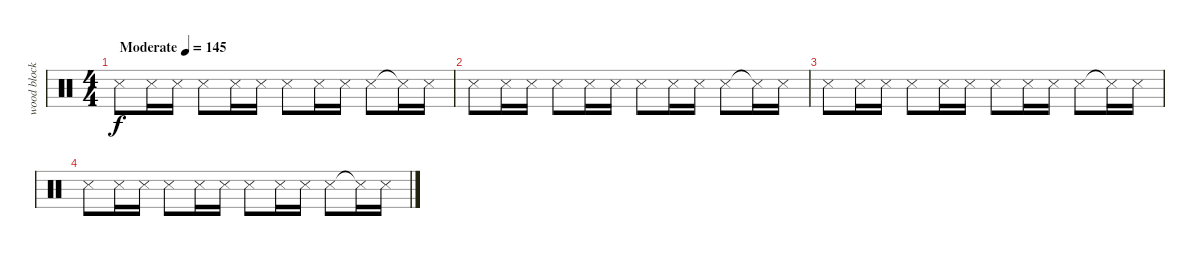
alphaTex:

\track ("wood block" "wood block") {instrument percussion}
\staff {score}
\articulation defaults
\ts (4 4)
\tempo (145 "Moderate")
\clef neutral
\ks c "Snare (side stick) 3".8{dy f} "Snare (side stick) 3".16 "Snare (side stick) 3".16 "Snare (side stick) 3".8 "Snare (side stick) 3".16 "Snare (side stick) 3".16 "Snare (side stick) 3".8 "Snare (side stick) 3".16 "Snare (side stick) 3".16 "Snare (side stick) 3".8 "Snare (side stick) 3"{t}.16 "Snare (side stick) 3".16
|
"Snare (side stick) 3".8 "Snare (side stick) 3".16 "Snare (side stick) 3".16 "Snare (side stick) 3".8 "Snare (side stick) 3".16 "Snare (side stick) 3".16 "Snare (side stick) 3".8 "Snare (side stick) 3".16 "Snare (side stick) 3".16 "Snare (side stick) 3".8 "Snare (side stick) 3"{t}.16 "Snare (side stick) 3".16 |
"Snare (side stick) 3".8 "Snare (side stick) 3".16 "Snare (side stick) 3".16 "Snare (side stick) 3".8 "Snare (side stick) 3".16 "Snare (side stick) 3".16 "Snare (side stick) 3".8 "Snare (side stick) 3".16 "Snare (side stick) 3".16 "Snare (side stick) 3".8 "Snare (side stick) 3"{t}.16 "Snare (side stick) 3".16 |
"Snare (side stick) 3".8 "Snare (side stick) 3".16 "Snare (side stick) 3".16 "Snare (side stick) 3".8 "Snare (side stick) 3".16 "Snare (side stick) 3".16 "Snare (side stick) 3".8 "Snare (side stick) 3".16 "Snare (side stick) 3".16 "Snare (side stick) 3".8 "Snare (side stick) 3"{t}.16 "Snare (side stick) 3".16
